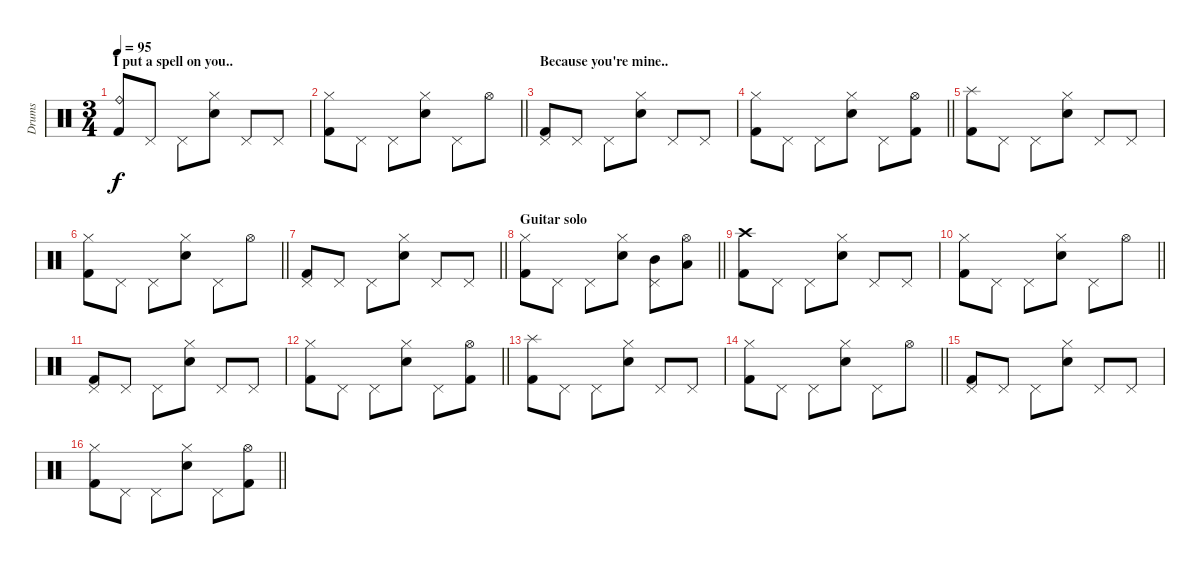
\track ("Drums" "Drums") {instrument percussion}
\staff {score}
\articulation defaults
\ts (3 4)
\section ("" "I put a spell on you..")
\tempo 95
\clef neutral
\ks c
("Ride (bell)" "Kick (hit) 2").8{dy f} "Pedal Hi-Hat (hit)".8 "Pedal Hi-Hat (hit)".8 ("Hi-Hat (closed)" "Snare (hit) 2").8 "Pedal Hi-Hat (hit)".8 "Pedal Hi-Hat (hit)".8 |
\barLineRight lightlight
("Hi-Hat (closed)" "Kick (hit) 2").8 "Pedal Hi-Hat (hit)".8 "Pedal Hi-Hat (hit)".8 ("Hi-Hat (closed)" "Snare (hit) 2").8 "Pedal Hi-Hat (hit)".8 "Hi-Hat (open)".8 |
\section ("" "Because you're mine..")
("Pedal Hi-Hat (hit)" "Kick (hit) 2").8 "Pedal Hi-Hat (hit)".8 "Pedal Hi-Hat (hit)".8 ("Hi-Hat (closed)" "Snare (hit) 2").8 "Pedal Hi-Hat (hit)".8 "Pedal Hi-Hat (hit)".8 |
\barLineRight lightlight
("Hi-Hat (closed)" "Kick (hit) 2").8 "Pedal Hi-Hat (hit)".8 "Pedal Hi-Hat (hit)".8 ("Hi-Hat (closed)" "Snare (hit) 2").8 "Pedal Hi-Hat (hit)".8 ("Hi-Hat (open)" "Kick (hit) 2").8 |
("Splash (hit)" "Kick (hit) 2").8 "Pedal Hi-Hat (hit)".8 "Pedal Hi-Hat (hit)".8 ("Hi-Hat (closed)" "Snare (hit) 2").8 "Pedal Hi-Hat (hit)".8 "Pedal Hi-Hat (hit)".8 |
\barLineRight lightlight
("Hi-Hat (closed)" "Kick (hit) 2").8 "Pedal Hi-Hat (hit)".8 "Pedal Hi-Hat (hit)".8 ("Hi-Hat (closed)" "Snare (hit) 2").8 "Pedal Hi-Hat (hit)".8 "Hi-Hat (open)".8 |
\barLineRight lightlight
("Pedal Hi-Hat (hit)" "Kick (hit) 2").8 "Pedal Hi-Hat (hit)".8 "Pedal Hi-Hat (hit)".8 ("Hi-Hat (closed)" "Snare (hit) 2").8 "Pedal Hi-Hat (hit)".8 "Pedal Hi-Hat (hit)".8 |
\section ("" "Guitar solo")
\barLineRight lightlight
("Hi-Hat (closed)" "Kick (hit) 2").8 "Pedal Hi-Hat (hit)".8 "Pedal Hi-Hat (hit)".8 ("Hi-Hat (closed)" "Snare (hit) 2").8 ("Pedal Hi-Hat (hit)" "Mid Tom (hit)").8 ("Hi-Hat (open)" "Low Tom (hit)").8 |
("Crash high (hit)" "Kick (hit) 2").8 "Pedal Hi-Hat (hit)".8 "Pedal Hi-Hat (hit)".8 ("Hi-Hat (closed)" "Snare (hit) 2").8 "Pedal Hi-Hat (hit)".8 "Pedal Hi-Hat (hit)".8 |
\barLineRight lightlight
("Hi-Hat (closed)" "Kick (hit) 2").8 "Pedal Hi-Hat (hit)".8 "Pedal Hi-Hat (hit)".8 ("Hi-Hat (closed)" "Snare (hit) 2").8 "Pedal Hi-Hat (hit)".8 "Hi-Hat (open)".8 |
("Pedal Hi-Hat (hit)" "Kick (hit) 2").8 "Pedal Hi-Hat (hit)".8 "Pedal Hi-Hat (hit)".8 ("Hi-Hat (closed)" "Snare (hit) 2").8 "Pedal Hi-Hat (hit)".8 "Pedal Hi-Hat (hit)".8 |
\barLineRight lightlight
("Hi-Hat (closed)" "Kick (hit) 2").8 "Pedal Hi-Hat (hit)".8 "Pedal Hi-Hat (hit)".8 ("Hi-Hat (closed)" "Snare (hit) 2").8 "Pedal Hi-Hat (hit)".8 ("Hi-Hat (open)" "Kick (hit) 2").8 |
("Splash (hit)" "Kick (hit) 2").8 "Pedal Hi-Hat (hit)".8 "Pedal Hi-Hat (hit)".8 ("Hi-Hat (closed)" "Snare (hit) 2").8 "Pedal Hi-Hat (hit)".8 "Pedal Hi-Hat (hit)".8 |
\barLineRight lightlight
("Hi-Hat (closed)" "Kick (hit) 2").8 "Pedal Hi-Hat (hit)".8 "Pedal Hi-Hat (hit)".8 ("Hi-Hat (closed)" "Snare (hit) 2").8 "Pedal Hi-Hat (hit)".8 "Hi-Hat (open)".8 |
("Pedal Hi-Hat (hit)" "Kick (hit) 2").8 "Pedal Hi-Hat (hit)".8 "Pedal Hi-Hat (hit)".8 ("Hi-Hat (closed)" "Snare (hit) 2").8 "Pedal Hi-Hat (hit)".8 "Pedal Hi-Hat (hit)".8 |
\barLineRight lightlight
("Hi-Hat (closed)" "Kick (hit) 2").8 "Pedal Hi-Hat (hit)".8 "Pedal Hi-Hat (hit)".8 ("Hi-Hat (closed)" "Snare (hit) 2").8 "Pedal Hi-Hat (hit)".8 ("Hi-Hat (open)" "Kick (hit) 2").8
